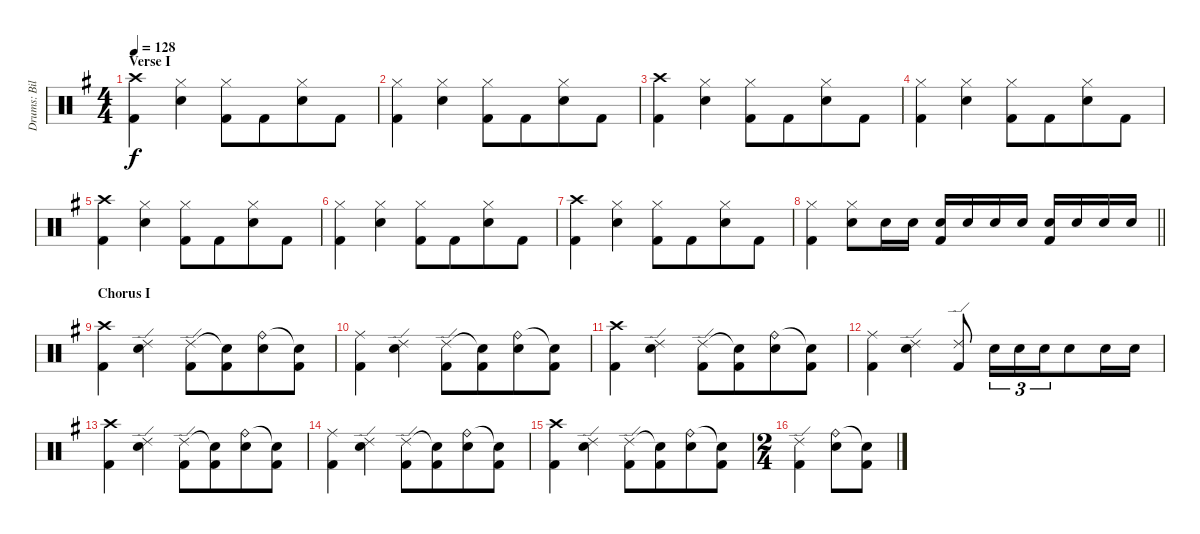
\track ("Drums: Bill" "Drums: Bil") {instrument percussion}
\staff {score}
\articulation defaults
\ts (4 4)
\section ("" "Verse I")
\tempo 128
\clef neutral
\ks g
("Crash high (hit)" "Kick (hit) 2").4{dy f} ("Hi-Hat (closed)" "Snare (hit) 2").4{beam split} ("Hi-Hat (closed)" "Kick (hit) 2").8 "Kick (hit) 2".8{beam merge} ("Hi-Hat (closed)" "Snare (hit) 2").8 "Kick (hit) 2".8 |
("Hi-Hat (closed)" "Kick (hit) 2").4 ("Hi-Hat (closed)" "Snare (hit) 2").4{beam split} ("Hi-Hat (closed)" "Kick (hit) 2").8 "Kick (hit) 2".8{beam merge} ("Hi-Hat (closed)" "Snare (hit) 2").8 "Kick (hit) 2".8 |
("Crash high (hit)" "Kick (hit) 2").4 ("Hi-Hat (closed)" "Snare (hit) 2").4{beam split} ("Hi-Hat (closed)" "Kick (hit) 2").8 "Kick (hit) 2".8{beam merge} ("Hi-Hat (closed)" "Snare (hit) 2").8 "Kick (hit) 2".8 |
("Hi-Hat (closed)" "Kick (hit) 2").4 ("Hi-Hat (closed)" "Snare (hit) 2").4{beam split} ("Hi-Hat (closed)" "Kick (hit) 2").8 "Kick (hit) 2".8{beam merge} ("Hi-Hat (closed)" "Snare (hit) 2").8 "Kick (hit) 2".8 |
("Crash high (hit)" "Kick (hit) 2").4 ("Hi-Hat (closed)" "Snare (hit) 2").4{beam split} ("Hi-Hat (closed)" "Kick (hit) 2").8 "Kick (hit) 2".8{beam merge} ("Hi-Hat (closed)" "Snare (hit) 2").8 "Kick (hit) 2".8 |
("Hi-Hat (closed)" "Kick (hit) 2").4 ("Hi-Hat (closed)" "Snare (hit) 2").4{beam split} ("Hi-Hat (closed)" "Kick (hit) 2").8 "Kick (hit) 2".8{beam merge} ("Hi-Hat (closed)" "Snare (hit) 2").8 "Kick (hit) 2".8 |
("Crash high (hit)" "Kick (hit) 2").4 ("Hi-Hat (closed)" "Snare (hit) 2").4{beam split} ("Hi-Hat (closed)" "Kick (hit) 2").8 "Kick (hit) 2".8{beam merge} ("Hi-Hat (closed)" "Snare (hit) 2").8 "Kick (hit) 2".8 |
\barLineRight lightlight
("Hi-Hat (closed)" "Kick (hit) 2").4 ("Hi-Hat (closed)" "Snare (hit) 2").8 "Snare (hit) 2".16 "Snare (hit) 2".16 ("Snare (hit) 2" "Kick (hit) 2").16 "Snare (hit) 2".16 "Snare (hit) 2".16 "Snare (hit) 2".16 ("Snare (hit) 2" "Kick (hit) 2").16 "Snare (hit) 2".16 "Snare (hit) 2".16 "Snare (hit) 2".16 |
\section ("" "Chorus I")
("Crash high (hit)" "Kick (hit) 2").4 ("Ride (edge) 2" "Snare (hit) 2").4{beam split} ("Ride (edge) 2" "Kick (hit) 2").8 ("Snare (hit)"{t} "Kick (hit) 2").8{beam merge} ("Ride (bell)" "Snare (hit) 2").8 ("Snare (hit)"{t} "Kick (hit) 2").8 |
("Ride (middle)" "Kick (hit) 2").4 ("Ride (edge) 2" "Snare (hit) 2").4{beam split} ("Ride (edge) 2" "Kick (hit) 2").8 ("Snare (hit)"{t} "Kick (hit) 2").8{beam merge} ("Ride (bell)" "Snare (hit) 2").8 ("Snare (hit)"{t} "Kick (hit) 2").8 |
("Crash high (hit)" "Kick (hit) 2").4 ("Ride (edge) 2" "Snare (hit) 2").4{beam split} ("Ride (edge) 2" "Kick (hit) 2").8 ("Snare (hit)"{t} "Kick (hit) 2").8{beam merge} ("Ride (bell)" "Snare (hit) 2").8 ("Snare (hit)"{t} "Kick (hit) 2").8 |
("Ride (middle)" "Kick (hit) 2").4 ("Ride (edge) 2" "Snare (hit) 2").4{beam split} ("Ride (edge) 2" "Kick (hit) 2").8 "Snare (hit) 2".16{tu (3 2)} "Snare (hit) 2".16{tu (3 2)} "Snare (hit) 2".16{tu (3 2) beam merge} "Snare (hit) 2".8 "Snare (hit) 2".16 "Snare (hit) 2".16 |
("Crash high (hit)" "Kick (hit) 2").4 ("Ride (edge) 2" "Snare (hit) 2").4{beam split} ("Ride (edge) 2" "Kick (hit) 2").8 ("Snare (hit)"{t} "Kick (hit) 2").8{beam merge} ("Ride (bell)" "Snare (hit) 2").8 ("Snare (hit)"{t} "Kick (hit) 2").8 |
("Ride (middle)" "Kick (hit) 2").4 ("Ride (edge) 2" "Snare (hit) 2").4{beam split} ("Ride (edge) 2" "Kick (hit) 2").8 ("Snare (hit)"{t} "Kick (hit) 2").8{beam merge} ("Ride (bell)" "Snare (hit) 2").8 ("Snare (hit)"{t} "Kick (hit) 2").8 |
("Crash high (hit)" "Kick (hit) 2").4 ("Ride (edge) 2" "Snare (hit) 2").4{beam split} ("Ride (edge) 2" "Kick (hit) 2").8 ("Snare (hit)"{t} "Kick (hit) 2").8{beam merge} ("Ride (bell)" "Snare (hit) 2").8 ("Snare (hit)"{t} "Kick (hit) 2").8 |
\ts (2 4)
("Ride (edge) 2" "Kick (hit) 2").4{beam merge} ("Ride (bell)" "Snare (hit) 2").8 ("Snare (hit)"{t} "Kick (hit) 2").8
